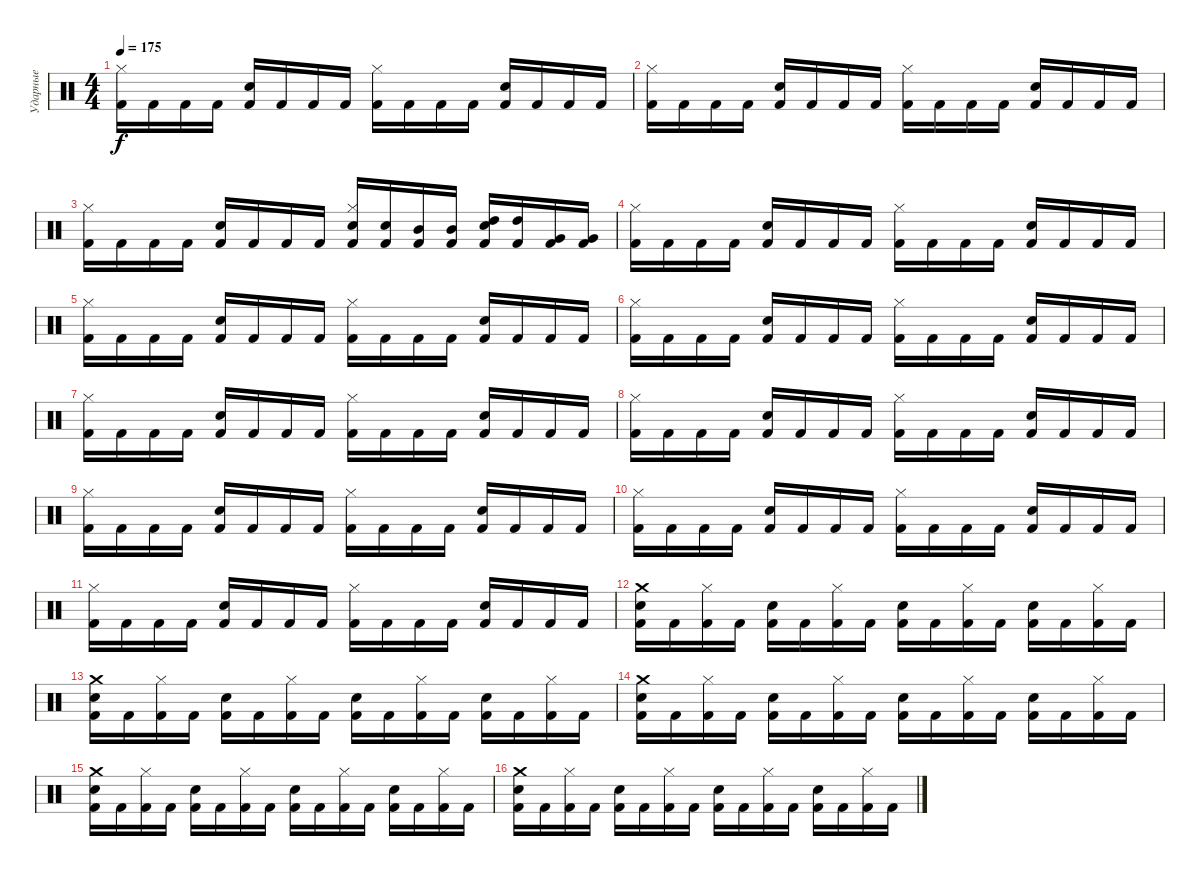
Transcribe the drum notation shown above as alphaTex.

\track ("Ударные" "Ударные") {instrument percussion}
\staff {score}
\articulation defaults
\ts (4 4)
\tempo 175
\clef neutral
\ks c
("Kick (hit) 2" "Hi-Hat (closed)").16{dy f} "Kick (hit) 2".16 "Kick (hit) 2".16 "Kick (hit) 2".16 ("Kick (hit) 2" "Snare (hit) 2").16 "Kick (hit) 2".16 "Kick (hit) 2".16 "Kick (hit) 2".16 ("Kick (hit) 2" "Hi-Hat (closed)").16 "Kick (hit) 2".16 "Kick (hit) 2".16 "Kick (hit) 2".16 ("Kick (hit) 2" "Snare (hit) 2").16 "Kick (hit) 2".16 "Kick (hit) 2".16 "Kick (hit) 2".16 |
("Kick (hit) 2" "Hi-Hat (closed)").16 "Kick (hit) 2".16 "Kick (hit) 2".16 "Kick (hit) 2".16 ("Kick (hit) 2" "Snare (hit) 2").16 "Kick (hit) 2".16 "Kick (hit) 2".16 "Kick (hit) 2".16 ("Kick (hit) 2" "Hi-Hat (closed)").16 "Kick (hit) 2".16 "Kick (hit) 2".16 "Kick (hit) 2".16 ("Kick (hit) 2" "Snare (hit) 2").16 "Kick (hit) 2".16 "Kick (hit) 2".16 "Kick (hit) 2".16 |
("Kick (hit) 2" "Hi-Hat (closed)").16 "Kick (hit) 2".16 "Kick (hit) 2".16 "Kick (hit) 2".16 ("Kick (hit) 2" "Snare (hit) 2").16 "Kick (hit) 2".16 "Kick (hit) 2".16 "Kick (hit) 2".16 ("Kick (hit) 2" "Hi-Hat (closed)" "Electric Snare (hit)").16 ("Kick (hit) 2" "Electric Snare (hit)").16 ("Kick (hit) 2" "Mid Tom (hit)").16 ("Kick (hit) 2" "Mid Tom (hit)").16 ("Kick (hit) 2" "Snare (hit) 2" "High Tom (hit)").16 ("Kick (hit) 2" "High Tom (hit)").16 ("Kick (hit) 2" "Very Low Tom (hit)").16 ("Kick (hit) 2" "Very Low Tom (hit)").16 |
("Kick (hit) 2" "Hi-Hat (closed)").16 "Kick (hit) 2".16 "Kick (hit) 2".16 "Kick (hit) 2".16 ("Kick (hit) 2" "Snare (hit) 2").16 "Kick (hit) 2".16 "Kick (hit) 2".16 "Kick (hit) 2".16 ("Kick (hit) 2" "Hi-Hat (closed)").16 "Kick (hit) 2".16 "Kick (hit) 2".16 "Kick (hit) 2".16 ("Kick (hit) 2" "Snare (hit) 2").16 "Kick (hit) 2".16 "Kick (hit) 2".16 "Kick (hit) 2".16 |
("Kick (hit) 2" "Hi-Hat (closed)").16 "Kick (hit) 2".16 "Kick (hit) 2".16 "Kick (hit) 2".16 ("Kick (hit) 2" "Snare (hit) 2").16 "Kick (hit) 2".16 "Kick (hit) 2".16 "Kick (hit) 2".16 ("Kick (hit) 2" "Hi-Hat (closed)").16 "Kick (hit) 2".16 "Kick (hit) 2".16 "Kick (hit) 2".16 ("Kick (hit) 2" "Snare (hit) 2").16 "Kick (hit) 2".16 "Kick (hit) 2".16 "Kick (hit) 2".16 |
("Kick (hit) 2" "Hi-Hat (closed)").16 "Kick (hit) 2".16 "Kick (hit) 2".16 "Kick (hit) 2".16 ("Kick (hit) 2" "Snare (hit) 2").16 "Kick (hit) 2".16 "Kick (hit) 2".16 "Kick (hit) 2".16 ("Kick (hit) 2" "Hi-Hat (closed)").16 "Kick (hit) 2".16 "Kick (hit) 2".16 "Kick (hit) 2".16 ("Kick (hit) 2" "Snare (hit) 2").16 "Kick (hit) 2".16 "Kick (hit) 2".16 "Kick (hit) 2".16 |
("Kick (hit) 2" "Hi-Hat (closed)").16 "Kick (hit) 2".16 "Kick (hit) 2".16 "Kick (hit) 2".16 ("Kick (hit) 2" "Snare (hit) 2").16 "Kick (hit) 2".16 "Kick (hit) 2".16 "Kick (hit) 2".16 ("Kick (hit) 2" "Hi-Hat (closed)").16 "Kick (hit) 2".16 "Kick (hit) 2".16 "Kick (hit) 2".16 ("Kick (hit) 2" "Snare (hit) 2").16 "Kick (hit) 2".16 "Kick (hit) 2".16 "Kick (hit) 2".16 |
("Kick (hit) 2" "Hi-Hat (closed)").16 "Kick (hit) 2".16 "Kick (hit) 2".16 "Kick (hit) 2".16 ("Kick (hit) 2" "Snare (hit) 2").16 "Kick (hit) 2".16 "Kick (hit) 2".16 "Kick (hit) 2".16 ("Kick (hit) 2" "Hi-Hat (closed)").16 "Kick (hit) 2".16 "Kick (hit) 2".16 "Kick (hit) 2".16 ("Kick (hit) 2" "Snare (hit) 2").16 "Kick (hit) 2".16 "Kick (hit) 2".16 "Kick (hit) 2".16 |
("Kick (hit) 2" "Hi-Hat (closed)").16 "Kick (hit) 2".16 "Kick (hit) 2".16 "Kick (hit) 2".16 ("Kick (hit) 2" "Snare (hit) 2").16 "Kick (hit) 2".16 "Kick (hit) 2".16 "Kick (hit) 2".16 ("Kick (hit) 2" "Hi-Hat (closed)").16 "Kick (hit) 2".16 "Kick (hit) 2".16 "Kick (hit) 2".16 ("Kick (hit) 2" "Snare (hit) 2").16 "Kick (hit) 2".16 "Kick (hit) 2".16 "Kick (hit) 2".16 |
("Kick (hit) 2" "Hi-Hat (closed)").16 "Kick (hit) 2".16 "Kick (hit) 2".16 "Kick (hit) 2".16 ("Kick (hit) 2" "Snare (hit) 2").16 "Kick (hit) 2".16 "Kick (hit) 2".16 "Kick (hit) 2".16 ("Kick (hit) 2" "Hi-Hat (closed)").16 "Kick (hit) 2".16 "Kick (hit) 2".16 "Kick (hit) 2".16 ("Kick (hit) 2" "Snare (hit) 2").16 "Kick (hit) 2".16 "Kick (hit) 2".16 "Kick (hit) 2".16 |
("Kick (hit) 2" "Hi-Hat (closed)").16 "Kick (hit) 2".16 "Kick (hit) 2".16 "Kick (hit) 2".16 ("Kick (hit) 2" "Snare (hit) 2").16 "Kick (hit) 2".16 "Kick (hit) 2".16 "Kick (hit) 2".16 ("Kick (hit) 2" "Hi-Hat (closed)").16 "Kick (hit) 2".16 "Kick (hit) 2".16 "Kick (hit) 2".16 ("Kick (hit) 2" "Snare (hit) 2").16 "Kick (hit) 2".16 "Kick (hit) 2".16 "Kick (hit) 2".16 |
("Kick (hit) 2" "Snare (hit) 2" "Crash medium (hit)").16 "Kick (hit) 2".16 ("Kick (hit) 2" "Hi-Hat (closed)").16 "Kick (hit) 2".16 ("Kick (hit) 2" "Snare (hit) 2").16 "Kick (hit) 2".16 ("Kick (hit) 2" "Hi-Hat (closed)").16 "Kick (hit) 2".16 ("Kick (hit) 2" "Snare (hit) 2").16 "Kick (hit) 2".16 ("Kick (hit) 2" "Hi-Hat (closed)").16 "Kick (hit) 2".16 ("Kick (hit) 2" "Snare (hit) 2").16 "Kick (hit) 2".16 ("Kick (hit) 2" "Hi-Hat (closed)").16 "Kick (hit) 2".16 |
("Kick (hit) 2" "Snare (hit) 2" "Crash medium (hit)").16 "Kick (hit) 2".16 ("Kick (hit) 2" "Hi-Hat (closed)").16 "Kick (hit) 2".16 ("Kick (hit) 2" "Snare (hit) 2").16 "Kick (hit) 2".16 ("Kick (hit) 2" "Hi-Hat (closed)").16 "Kick (hit) 2".16 ("Kick (hit) 2" "Snare (hit) 2").16 "Kick (hit) 2".16 ("Kick (hit) 2" "Hi-Hat (closed)").16 "Kick (hit) 2".16 ("Kick (hit) 2" "Snare (hit) 2").16 "Kick (hit) 2".16 ("Kick (hit) 2" "Hi-Hat (closed)").16 "Kick (hit) 2".16 |
("Kick (hit) 2" "Snare (hit) 2" "Crash medium (hit)").16 "Kick (hit) 2".16 ("Kick (hit) 2" "Hi-Hat (closed)").16 "Kick (hit) 2".16 ("Kick (hit) 2" "Snare (hit) 2").16 "Kick (hit) 2".16 ("Kick (hit) 2" "Hi-Hat (closed)").16 "Kick (hit) 2".16 ("Kick (hit) 2" "Snare (hit) 2").16 "Kick (hit) 2".16 ("Kick (hit) 2" "Hi-Hat (closed)").16 "Kick (hit) 2".16 ("Kick (hit) 2" "Snare (hit) 2").16 "Kick (hit) 2".16 ("Kick (hit) 2" "Hi-Hat (closed)").16 "Kick (hit) 2".16 |
("Kick (hit) 2" "Snare (hit) 2" "Crash medium (hit)").16 "Kick (hit) 2".16 ("Kick (hit) 2" "Hi-Hat (closed)").16 "Kick (hit) 2".16 ("Kick (hit) 2" "Snare (hit) 2").16 "Kick (hit) 2".16 ("Kick (hit) 2" "Hi-Hat (closed)").16 "Kick (hit) 2".16 ("Kick (hit) 2" "Snare (hit) 2").16 "Kick (hit) 2".16 ("Kick (hit) 2" "Hi-Hat (closed)").16 "Kick (hit) 2".16 ("Kick (hit) 2" "Snare (hit) 2").16 "Kick (hit) 2".16 ("Kick (hit) 2" "Hi-Hat (closed)").16 "Kick (hit) 2".16 |
("Kick (hit) 2" "Snare (hit) 2" "Crash medium (hit)").16 "Kick (hit) 2".16 ("Kick (hit) 2" "Hi-Hat (closed)").16 "Kick (hit) 2".16 ("Kick (hit) 2" "Snare (hit) 2").16 "Kick (hit) 2".16 ("Kick (hit) 2" "Hi-Hat (closed)").16 "Kick (hit) 2".16 ("Kick (hit) 2" "Snare (hit) 2").16 "Kick (hit) 2".16 ("Kick (hit) 2" "Hi-Hat (closed)").16 "Kick (hit) 2".16 ("Kick (hit) 2" "Snare (hit) 2").16 "Kick (hit) 2".16 ("Kick (hit) 2" "Hi-Hat (closed)").16 "Kick (hit) 2".16
